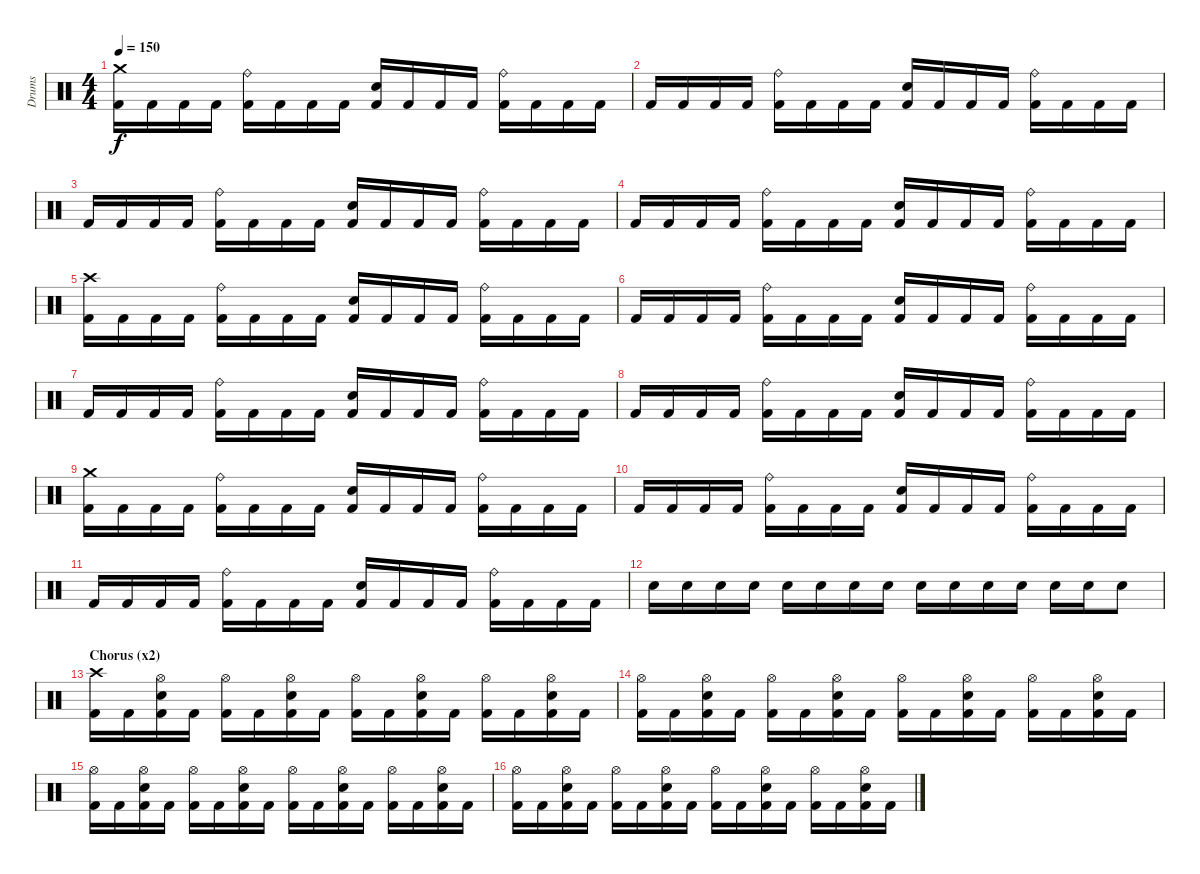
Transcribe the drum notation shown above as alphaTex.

\track ("Drums" "Drums") {instrument percussion}
\staff {score}
\articulation defaults
\ts (4 4)
\tempo 150
\clef neutral
\ks c
("Crash medium (hit)" "Kick (hit) 2").16{dy f} "Kick (hit) 2".16 "Kick (hit) 2".16 "Kick (hit) 2".16 ("Ride (bell)" "Kick (hit) 2").16 "Kick (hit) 2".16 "Kick (hit) 2".16 "Kick (hit) 2".16 ("Snare (hit) 2" "Kick (hit) 2").16 "Kick (hit) 2".16 "Kick (hit) 2".16 "Kick (hit) 2".16 ("Ride (bell)" "Kick (hit) 2").16 "Kick (hit) 2".16 "Kick (hit) 2".16 "Kick (hit) 2".16 |
"Kick (hit) 2".16 "Kick (hit) 2".16 "Kick (hit) 2".16 "Kick (hit) 2".16 ("Ride (bell)" "Kick (hit) 2").16 "Kick (hit) 2".16 "Kick (hit) 2".16 "Kick (hit) 2".16 ("Snare (hit) 2" "Kick (hit) 2").16 "Kick (hit) 2".16 "Kick (hit) 2".16 "Kick (hit) 2".16 ("Ride (bell)" "Kick (hit) 2").16 "Kick (hit) 2".16 "Kick (hit) 2".16 "Kick (hit) 2".16 |
"Kick (hit) 2".16 "Kick (hit) 2".16 "Kick (hit) 2".16 "Kick (hit) 2".16 ("Ride (bell)" "Kick (hit) 2").16 "Kick (hit) 2".16 "Kick (hit) 2".16 "Kick (hit) 2".16 ("Snare (hit) 2" "Kick (hit) 2").16 "Kick (hit) 2".16 "Kick (hit) 2".16 "Kick (hit) 2".16 ("Ride (bell)" "Kick (hit) 2").16 "Kick (hit) 2".16 "Kick (hit) 2".16 "Kick (hit) 2".16 |
"Kick (hit) 2".16 "Kick (hit) 2".16 "Kick (hit) 2".16 "Kick (hit) 2".16 ("Ride (bell)" "Kick (hit) 2").16 "Kick (hit) 2".16 "Kick (hit) 2".16 "Kick (hit) 2".16 ("Snare (hit) 2" "Kick (hit) 2").16 "Kick (hit) 2".16 "Kick (hit) 2".16 "Kick (hit) 2".16 ("Ride (bell)" "Kick (hit) 2").16 "Kick (hit) 2".16 "Kick (hit) 2".16 "Kick (hit) 2".16 |
("Crash high (hit)" "Kick (hit) 2").16 "Kick (hit) 2".16 "Kick (hit) 2".16 "Kick (hit) 2".16 ("Ride (bell)" "Kick (hit) 2").16 "Kick (hit) 2".16 "Kick (hit) 2".16 "Kick (hit) 2".16 ("Snare (hit) 2" "Kick (hit) 2").16 "Kick (hit) 2".16 "Kick (hit) 2".16 "Kick (hit) 2".16 ("Ride (bell)" "Kick (hit) 2").16 "Kick (hit) 2".16 "Kick (hit) 2".16 "Kick (hit) 2".16 |
"Kick (hit) 2".16 "Kick (hit) 2".16 "Kick (hit) 2".16 "Kick (hit) 2".16 ("Ride (bell)" "Kick (hit) 2").16 "Kick (hit) 2".16 "Kick (hit) 2".16 "Kick (hit) 2".16 ("Snare (hit) 2" "Kick (hit) 2").16 "Kick (hit) 2".16 "Kick (hit) 2".16 "Kick (hit) 2".16 ("Ride (bell)" "Kick (hit) 2").16 "Kick (hit) 2".16 "Kick (hit) 2".16 "Kick (hit) 2".16 |
"Kick (hit) 2".16 "Kick (hit) 2".16 "Kick (hit) 2".16 "Kick (hit) 2".16 ("Ride (bell)" "Kick (hit) 2").16 "Kick (hit) 2".16 "Kick (hit) 2".16 "Kick (hit) 2".16 ("Snare (hit) 2" "Kick (hit) 2").16 "Kick (hit) 2".16 "Kick (hit) 2".16 "Kick (hit) 2".16 ("Ride (bell)" "Kick (hit) 2").16 "Kick (hit) 2".16 "Kick (hit) 2".16 "Kick (hit) 2".16 |
"Kick (hit) 2".16 "Kick (hit) 2".16 "Kick (hit) 2".16 "Kick (hit) 2".16 ("Ride (bell)" "Kick (hit) 2").16 "Kick (hit) 2".16 "Kick (hit) 2".16 "Kick (hit) 2".16 ("Snare (hit) 2" "Kick (hit) 2").16 "Kick (hit) 2".16 "Kick (hit) 2".16 "Kick (hit) 2".16 ("Ride (bell)" "Kick (hit) 2").16 "Kick (hit) 2".16 "Kick (hit) 2".16 "Kick (hit) 2".16 |
("Crash medium (hit)" "Kick (hit) 2").16 "Kick (hit) 2".16 "Kick (hit) 2".16 "Kick (hit) 2".16 ("Ride (bell)" "Kick (hit) 2").16 "Kick (hit) 2".16 "Kick (hit) 2".16 "Kick (hit) 2".16 ("Snare (hit) 2" "Kick (hit) 2").16 "Kick (hit) 2".16 "Kick (hit) 2".16 "Kick (hit) 2".16 ("Ride (bell)" "Kick (hit) 2").16 "Kick (hit) 2".16 "Kick (hit) 2".16 "Kick (hit) 2".16 |
"Kick (hit) 2".16 "Kick (hit) 2".16 "Kick (hit) 2".16 "Kick (hit) 2".16 ("Ride (bell)" "Kick (hit) 2").16 "Kick (hit) 2".16 "Kick (hit) 2".16 "Kick (hit) 2".16 ("Snare (hit) 2" "Kick (hit) 2").16 "Kick (hit) 2".16 "Kick (hit) 2".16 "Kick (hit) 2".16 ("Ride (bell)" "Kick (hit) 2").16 "Kick (hit) 2".16 "Kick (hit) 2".16 "Kick (hit) 2".16 |
"Kick (hit) 2".16 "Kick (hit) 2".16 "Kick (hit) 2".16 "Kick (hit) 2".16 ("Ride (bell)" "Kick (hit) 2").16 "Kick (hit) 2".16 "Kick (hit) 2".16 "Kick (hit) 2".16 ("Snare (hit) 2" "Kick (hit) 2").16 "Kick (hit) 2".16 "Kick (hit) 2".16 "Kick (hit) 2".16 ("Ride (bell)" "Kick (hit) 2").16 "Kick (hit) 2".16 "Kick (hit) 2".16 "Kick (hit) 2".16 |
"Snare (hit) 2".16 "Snare (hit) 2".16 "Snare (hit) 2".16 "Snare (hit) 2".16 "Snare (hit) 2".16 "Snare (hit) 2".16 "Snare (hit) 2".16 "Snare (hit) 2".16 "Snare (hit) 2".16 "Snare (hit) 2".16 "Snare (hit) 2".16 "Snare (hit) 2".16 "Snare (hit) 2".16 "Snare (hit) 2".16 "Snare (hit) 2".8 |
\section ("" "Chorus (x2)")
("Crash high (hit)" "Kick (hit) 2").16 "Kick (hit) 2".16 ("Hi-Hat (open)" "Snare (hit) 2" "Kick (hit) 2").16 "Kick (hit) 2".16 ("Hi-Hat (open)" "Kick (hit) 2").16 "Kick (hit) 2".16 ("Hi-Hat (open)" "Snare (hit) 2" "Kick (hit) 2").16 "Kick (hit) 2".16 ("Hi-Hat (open)" "Kick (hit) 2").16 "Kick (hit) 2".16 ("Hi-Hat (open)" "Snare (hit) 2" "Kick (hit) 2").16 "Kick (hit) 2".16 ("Hi-Hat (open)" "Kick (hit) 2").16 "Kick (hit) 2".16 ("Hi-Hat (open)" "Snare (hit) 2" "Kick (hit) 2").16 "Kick (hit) 2".16 |
("Hi-Hat (open)" "Kick (hit) 2").16 "Kick (hit) 2".16 ("Hi-Hat (open)" "Snare (hit) 2" "Kick (hit) 2").16 "Kick (hit) 2".16 ("Hi-Hat (open)" "Kick (hit) 2").16 "Kick (hit) 2".16 ("Hi-Hat (open)" "Snare (hit) 2" "Kick (hit) 2").16 "Kick (hit) 2".16 ("Hi-Hat (open)" "Kick (hit) 2").16 "Kick (hit) 2".16 ("Hi-Hat (open)" "Snare (hit) 2" "Kick (hit) 2").16 "Kick (hit) 2".16 ("Hi-Hat (open)" "Kick (hit) 2").16 "Kick (hit) 2".16 ("Hi-Hat (open)" "Snare (hit) 2" "Kick (hit) 2").16 "Kick (hit) 2".16 |
("Hi-Hat (open)" "Kick (hit) 2").16 "Kick (hit) 2".16 ("Hi-Hat (open)" "Snare (hit) 2" "Kick (hit) 2").16 "Kick (hit) 2".16 ("Hi-Hat (open)" "Kick (hit) 2").16 "Kick (hit) 2".16 ("Hi-Hat (open)" "Snare (hit) 2" "Kick (hit) 2").16 "Kick (hit) 2".16 ("Hi-Hat (open)" "Kick (hit) 2").16 "Kick (hit) 2".16 ("Hi-Hat (open)" "Snare (hit) 2" "Kick (hit) 2").16 "Kick (hit) 2".16 ("Hi-Hat (open)" "Kick (hit) 2").16 "Kick (hit) 2".16 ("Hi-Hat (open)" "Snare (hit) 2" "Kick (hit) 2").16 "Kick (hit) 2".16 |
("Hi-Hat (open)" "Kick (hit) 2").16 "Kick (hit) 2".16 ("Hi-Hat (open)" "Snare (hit) 2" "Kick (hit) 2").16 "Kick (hit) 2".16 ("Hi-Hat (open)" "Kick (hit) 2").16 "Kick (hit) 2".16 ("Hi-Hat (open)" "Snare (hit) 2" "Kick (hit) 2").16 "Kick (hit) 2".16 ("Hi-Hat (open)" "Kick (hit) 2").16 "Kick (hit) 2".16 ("Hi-Hat (open)" "Snare (hit) 2" "Kick (hit) 2").16 "Kick (hit) 2".16 ("Hi-Hat (open)" "Kick (hit) 2").16 "Kick (hit) 2".16 ("Hi-Hat (open)" "Snare (hit) 2" "Kick (hit) 2").16 "Kick (hit) 2".16
